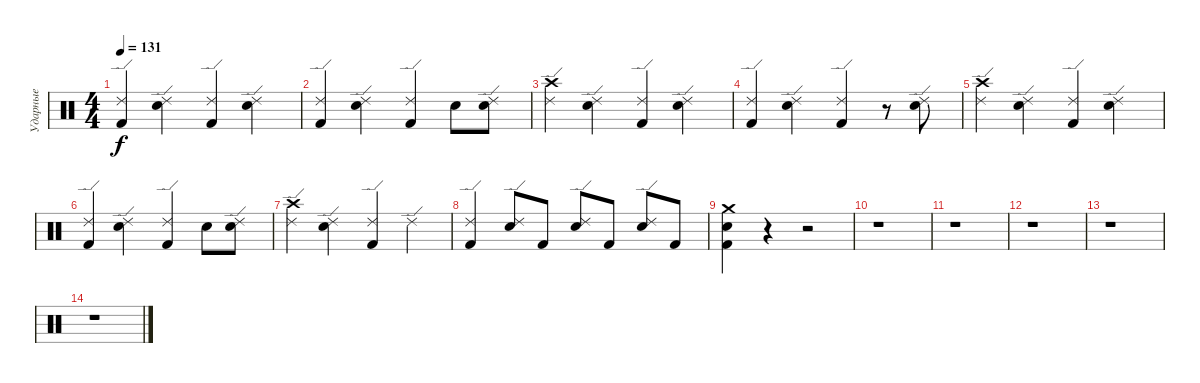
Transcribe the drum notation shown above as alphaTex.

\track ("Ударные" "Ударные") {instrument percussion}
\staff {score}
\articulation defaults
\ts (4 4)
\tempo 131
\clef neutral
\ks c
("Kick (hit) 2" "Ride (edge) 2").4{dy f} ("Electric Snare (hit)" "Ride (edge) 2").4 ("Kick (hit) 2" "Ride (edge) 2").4 ("Electric Snare (hit)" "Ride (edge) 2").4 |
("Kick (hit) 2" "Ride (edge) 2").4 ("Electric Snare (hit)" "Ride (edge) 2").4 ("Kick (hit) 2" "Ride (edge) 2").4 "Electric Snare (hit)".8 ("Electric Snare (hit)" "Ride (edge) 2").8 |
("Crash high (hit)" "Ride (edge) 2").4 ("Electric Snare (hit)" "Ride (edge) 2").4 ("Kick (hit) 2" "Ride (edge) 2").4 ("Electric Snare (hit)" "Ride (edge) 2").4 |
("Kick (hit) 2" "Ride (edge) 2").4 ("Electric Snare (hit)" "Ride (edge) 2").4 ("Kick (hit) 2" "Ride (edge) 2").4 r.8 ("Electric Snare (hit)" "Ride (edge) 2").8 |
("Crash high (hit)" "Ride (edge) 2").4 ("Electric Snare (hit)" "Ride (edge) 2").4 ("Kick (hit) 2" "Ride (edge) 2").4 ("Electric Snare (hit)" "Ride (edge) 2").4 |
("Kick (hit) 2" "Ride (edge) 2").4 ("Electric Snare (hit)" "Ride (edge) 2").4 ("Kick (hit) 2" "Ride (edge) 2").4 "Electric Snare (hit)".8 ("Electric Snare (hit)" "Ride (edge) 2").8 |
("Crash high (hit)" "Ride (edge) 2").4 ("Electric Snare (hit)" "Ride (edge) 2").4 ("Kick (hit) 2" "Ride (edge) 2").4 "Ride (edge) 2".4 |
("Kick (hit) 2" "Ride (edge) 2").4 ("Electric Snare (hit)" "Ride (edge) 2").8 "Kick (hit) 2".8 ("Electric Snare (hit)" "Ride (edge) 2").8 "Kick (hit) 2".8 ("Electric Snare (hit)" "Ride (edge) 2").8 "Kick (hit) 2".8 |
("Crash medium (hit)" "Kick (hit) 2" "Electric Snare (hit)").4 r.4 r.2 |
r.1 |
r.1 |
r.1 |
r.1 |
r.1
